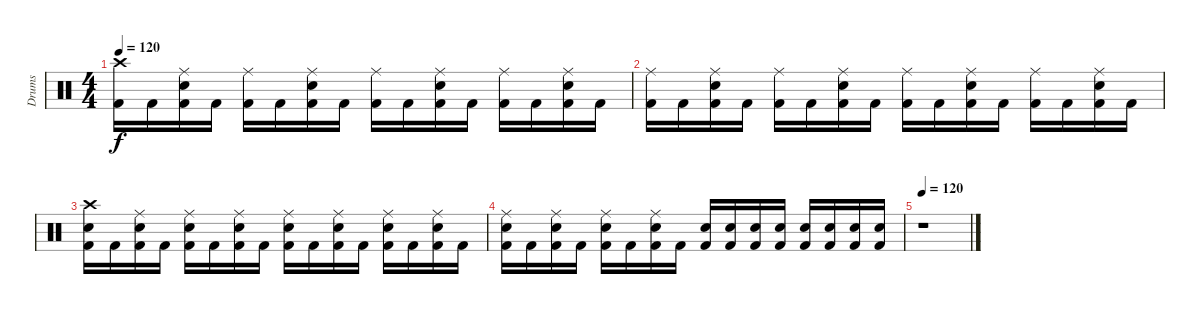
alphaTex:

\track ("Drums" "Drums") {instrument percussion}
\staff {score}
\articulation defaults
\ts (4 4)
\tempo 120
\clef neutral
\ks c
("Kick (hit) 2" "Crash high (hit)").16{dy f} "Kick (hit) 2".16 ("Kick (hit) 2" "Electric Snare (hit)" "Ride (middle)").16 "Kick (hit) 2".16 ("Kick (hit) 2" "Ride (middle)").16 "Kick (hit) 2".16 ("Kick (hit) 2" "Electric Snare (hit)" "Ride (middle)").16 "Kick (hit) 2".16 ("Kick (hit) 2" "Ride (middle)").16 "Kick (hit) 2".16 ("Kick (hit) 2" "Electric Snare (hit)" "Ride (middle)").16 "Kick (hit) 2".16 ("Kick (hit) 2" "Ride (middle)").16 "Kick (hit) 2".16 ("Kick (hit) 2" "Electric Snare (hit)" "Ride (middle)").16 "Kick (hit) 2".16 |
("Kick (hit) 2" "Ride (middle)").16 "Kick (hit) 2".16 ("Kick (hit) 2" "Electric Snare (hit)" "Ride (middle)").16 "Kick (hit) 2".16 ("Kick (hit) 2" "Ride (middle)").16 "Kick (hit) 2".16 ("Kick (hit) 2" "Electric Snare (hit)" "Ride (middle)").16 "Kick (hit) 2".16 ("Kick (hit) 2" "Ride (middle)").16 "Kick (hit) 2".16 ("Kick (hit) 2" "Electric Snare (hit)" "Ride (middle)").16 "Kick (hit) 2".16 ("Kick (hit) 2" "Ride (middle)").16 "Kick (hit) 2".16 ("Kick (hit) 2" "Electric Snare (hit)" "Ride (middle)").16 "Kick (hit) 2".16 |
("Kick (hit) 2" "Electric Snare (hit)" "Crash high (hit)").16 "Kick (hit) 2".16 ("Kick (hit) 2" "Electric Snare (hit)" "Ride (middle)").16 "Kick (hit) 2".16 ("Kick (hit) 2" "Electric Snare (hit)" "Ride (middle)").16 "Kick (hit) 2".16 ("Kick (hit) 2" "Electric Snare (hit)" "Ride (middle)").16 "Kick (hit) 2".16 ("Kick (hit) 2" "Electric Snare (hit)" "Ride (middle)").16 "Kick (hit) 2".16 ("Kick (hit) 2" "Electric Snare (hit)" "Ride (middle)").16 "Kick (hit) 2".16 ("Kick (hit) 2" "Electric Snare (hit)" "Ride (middle)").16 "Kick (hit) 2".16 ("Kick (hit) 2" "Electric Snare (hit)" "Ride (middle)").16 "Kick (hit) 2".16 |
("Kick (hit) 2" "Electric Snare (hit)" "Ride (middle)").16 "Kick (hit) 2".16 ("Kick (hit) 2" "Electric Snare (hit)" "Ride (middle)").16 "Kick (hit) 2".16 ("Kick (hit) 2" "Electric Snare (hit)" "Ride (middle)").16 "Kick (hit) 2".16 ("Kick (hit) 2" "Electric Snare (hit)" "Ride (middle)").16 "Kick (hit) 2".16 ("Kick (hit) 2" "Electric Snare (hit)").16 ("Kick (hit) 2" "Electric Snare (hit)").16 ("Kick (hit) 2" "Electric Snare (hit)").16 ("Kick (hit) 2" "Electric Snare (hit)").16 ("Kick (hit) 2" "Electric Snare (hit)").16 ("Kick (hit) 2" "Electric Snare (hit)").16 ("Kick (hit) 2" "Electric Snare (hit)").16 ("Kick (hit) 2" "Electric Snare (hit)").16 |
\tempo 120
r.1
